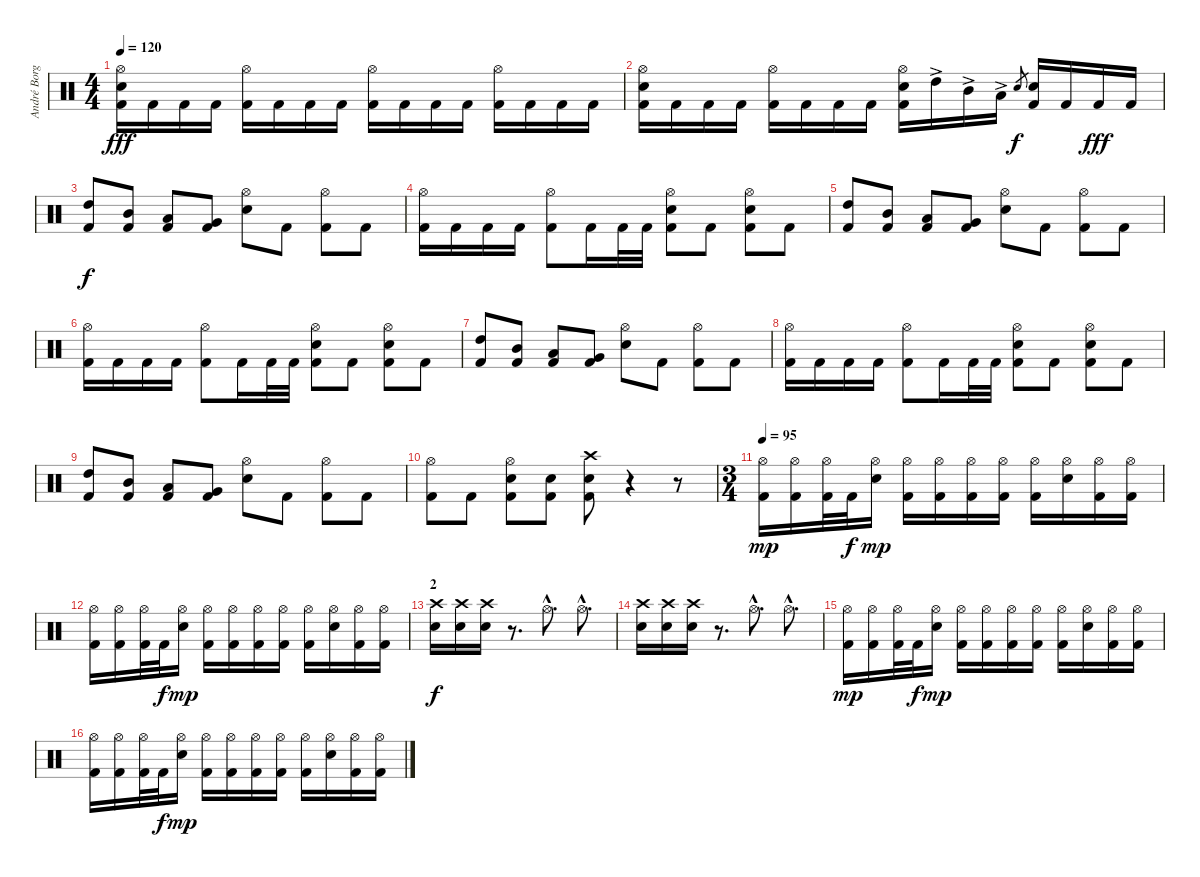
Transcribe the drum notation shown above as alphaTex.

\track ("André Borgman" "André Borg") {instrument percussion}
\staff {score}
\articulation defaults
\ts (4 4)
\tempo 120
\clef neutral
\ks c
("Hi-Hat (open)" "Electric Snare (hit)" "Kick (hit) 2").16{dy fff} "Kick (hit) 2".16 "Kick (hit) 2".16 "Kick (hit) 2".16 ("Hi-Hat (open)" "Kick (hit) 2").16 "Kick (hit) 2".16 "Kick (hit) 2".16 "Kick (hit) 2".16 ("Hi-Hat (open)" "Kick (hit) 2").16 "Kick (hit) 2".16 "Kick (hit) 2".16 "Kick (hit) 2".16 ("Hi-Hat (open)" "Kick (hit) 2").16 "Kick (hit) 2".16 "Kick (hit) 2".16 "Kick (hit) 2".16 |
("Hi-Hat (open)" "Electric Snare (hit)" "Kick (hit) 2").16 "Kick (hit) 2".16 "Kick (hit) 2".16 "Kick (hit) 2".16 ("Hi-Hat (open)" "Kick (hit) 2").16 "Kick (hit) 2".16 "Kick (hit) 2".16 "Kick (hit) 2".16 ("Hi-Hat (open)" "Electric Snare (hit)" "Kick (hit) 2").16 "High Tom (hit)"{ac}.16 "Mid Tom (hit)"{ac}.16 "Low Tom (hit)"{ac}.16 "Electric Snare (hit)".8{gr dy f} ("Electric Snare (hit)" "Kick (hit) 2").16 "Kick (hit) 2".16 "Kick (hit) 2".16{dy fff} "Kick (hit) 2".16 |
("High Tom (hit)" "Kick (hit) 2").8{dy f} ("Mid Tom (hit)" "Kick (hit) 2").8 ("Low Tom (hit)" "Kick (hit) 2").8 ("Very Low Tom (hit)" "Kick (hit) 2").8 ("Hi-Hat (open)" "Electric Snare (hit)").8 "Kick (hit) 2".8 ("Hi-Hat (open)" "Kick (hit) 2").8 "Kick (hit) 2".8 |
("Hi-Hat (open)" "Kick (hit) 2").16 "Kick (hit) 2".16 "Kick (hit) 2".16 "Kick (hit) 2".16 ("Hi-Hat (open)" "Kick (hit) 2").8 "Kick (hit) 2".16 "Kick (hit) 2".32 "Kick (hit) 2".32 ("Hi-Hat (open)" "Electric Snare (hit)" "Kick (hit) 2").8 "Kick (hit) 2".8 ("Hi-Hat (open)" "Electric Snare (hit)" "Kick (hit) 2").8 "Kick (hit) 2".8 |
("High Tom (hit)" "Kick (hit) 2").8 ("Mid Tom (hit)" "Kick (hit) 2").8 ("Low Tom (hit)" "Kick (hit) 2").8 ("Very Low Tom (hit)" "Kick (hit) 2").8 ("Hi-Hat (open)" "Electric Snare (hit)").8 "Kick (hit) 2".8 ("Hi-Hat (open)" "Kick (hit) 2").8 "Kick (hit) 2".8 |
("Hi-Hat (open)" "Kick (hit) 2").16 "Kick (hit) 2".16 "Kick (hit) 2".16 "Kick (hit) 2".16 ("Hi-Hat (open)" "Kick (hit) 2").8 "Kick (hit) 2".16 "Kick (hit) 2".32 "Kick (hit) 2".32 ("Hi-Hat (open)" "Electric Snare (hit)" "Kick (hit) 2").8 "Kick (hit) 2".8 ("Hi-Hat (open)" "Electric Snare (hit)" "Kick (hit) 2").8 "Kick (hit) 2".8 |
("High Tom (hit)" "Kick (hit) 2").8 ("Mid Tom (hit)" "Kick (hit) 2").8 ("Low Tom (hit)" "Kick (hit) 2").8 ("Very Low Tom (hit)" "Kick (hit) 2").8 ("Hi-Hat (open)" "Electric Snare (hit)").8 "Kick (hit) 2".8 ("Hi-Hat (open)" "Kick (hit) 2").8 "Kick (hit) 2".8 |
("Hi-Hat (open)" "Kick (hit) 2").16 "Kick (hit) 2".16 "Kick (hit) 2".16 "Kick (hit) 2".16 ("Hi-Hat (open)" "Kick (hit) 2").8 "Kick (hit) 2".16 "Kick (hit) 2".32 "Kick (hit) 2".32 ("Hi-Hat (open)" "Electric Snare (hit)" "Kick (hit) 2").8 "Kick (hit) 2".8 ("Hi-Hat (open)" "Electric Snare (hit)" "Kick (hit) 2").8 "Kick (hit) 2".8 |
("High Tom (hit)" "Kick (hit) 2").8 ("Mid Tom (hit)" "Kick (hit) 2").8 ("Low Tom (hit)" "Kick (hit) 2").8 ("Very Low Tom (hit)" "Kick (hit) 2").8 ("Hi-Hat (open)" "Electric Snare (hit)").8 "Kick (hit) 2".8 ("Hi-Hat (open)" "Kick (hit) 2").8 "Kick (hit) 2".8 |
("Hi-Hat (open)" "Kick (hit) 2").8 "Kick (hit) 2".8 ("Hi-Hat (open)" "Electric Snare (hit)" "Kick (hit) 2").8 ("Electric Snare (hit)" "Kick (hit) 2").8 ("Crash high (hit)" "Electric Snare (hit)" "Kick (hit) 2").8 r.4 r.8 |
\ts (3 4)
\tempo 95
("Hi-Hat (open)" "Kick (hit) 2").16{dy mp} ("Hi-Hat (open)" "Kick (hit) 2").16 ("Hi-Hat (open)" "Kick (hit) 2").32 "Kick (hit) 2".32{dy f} ("Hi-Hat (open)" "Electric Snare (hit)").16{dy mp} ("Hi-Hat (open)" "Kick (hit) 2").16 ("Hi-Hat (open)" "Kick (hit) 2").16 ("Hi-Hat (open)" "Kick (hit) 2").16 ("Hi-Hat (open)" "Kick (hit) 2").16 ("Hi-Hat (open)" "Kick (hit) 2").16 ("Hi-Hat (open)" "Electric Snare (hit)").16 ("Hi-Hat (open)" "Kick (hit) 2").16 ("Hi-Hat (open)" "Kick (hit) 2").16 |
("Hi-Hat (open)" "Kick (hit) 2").16 ("Hi-Hat (open)" "Kick (hit) 2").16 ("Hi-Hat (open)" "Kick (hit) 2").32 "Kick (hit) 2".32{dy f} ("Hi-Hat (open)" "Electric Snare (hit)").16{dy mp} ("Hi-Hat (open)" "Kick (hit) 2").16 ("Hi-Hat (open)" "Kick (hit) 2").16 ("Hi-Hat (open)" "Kick (hit) 2").16 ("Hi-Hat (open)" "Kick (hit) 2").16 ("Hi-Hat (open)" "Kick (hit) 2").16 ("Hi-Hat (open)" "Electric Snare (hit)").16 ("Hi-Hat (open)" "Kick (hit) 2").16 ("Hi-Hat (open)" "Kick (hit) 2").16 |
\section ("" "2")
("Crash high (hit)" "Electric Snare (hit)").16{dy f} ("Crash high (hit)" "Electric Snare (hit)").16 ("Crash high (hit)" "Electric Snare (hit)").16 r.8{d} "Hi-Hat (open)"{hac}.8{d} "Hi-Hat (open)"{hac}.8{d} |
("Crash high (hit)" "Electric Snare (hit)").16 ("Crash high (hit)" "Electric Snare (hit)").16 ("Crash high (hit)" "Electric Snare (hit)").16 r.8{d} "Hi-Hat (open)"{hac}.8{d} "Hi-Hat (open)"{hac}.8{d} |
("Hi-Hat (open)" "Kick (hit) 2").16{dy mp} ("Hi-Hat (open)" "Kick (hit) 2").16 ("Hi-Hat (open)" "Kick (hit) 2").32 "Kick (hit) 2".32{dy f} ("Hi-Hat (open)" "Electric Snare (hit)").16{dy mp} ("Hi-Hat (open)" "Kick (hit) 2").16 ("Hi-Hat (open)" "Kick (hit) 2").16 ("Hi-Hat (open)" "Kick (hit) 2").16 ("Hi-Hat (open)" "Kick (hit) 2").16 ("Hi-Hat (open)" "Kick (hit) 2").16 ("Hi-Hat (open)" "Electric Snare (hit)").16 ("Hi-Hat (open)" "Kick (hit) 2").16 ("Hi-Hat (open)" "Kick (hit) 2").16 |
("Hi-Hat (open)" "Kick (hit) 2").16 ("Hi-Hat (open)" "Kick (hit) 2").16 ("Hi-Hat (open)" "Kick (hit) 2").32 "Kick (hit) 2".32{dy f} ("Hi-Hat (open)" "Electric Snare (hit)").16{dy mp} ("Hi-Hat (open)" "Kick (hit) 2").16 ("Hi-Hat (open)" "Kick (hit) 2").16 ("Hi-Hat (open)" "Kick (hit) 2").16 ("Hi-Hat (open)" "Kick (hit) 2").16 ("Hi-Hat (open)" "Kick (hit) 2").16 ("Hi-Hat (open)" "Electric Snare (hit)").16 ("Hi-Hat (open)" "Kick (hit) 2").16 ("Hi-Hat (open)" "Kick (hit) 2").16
